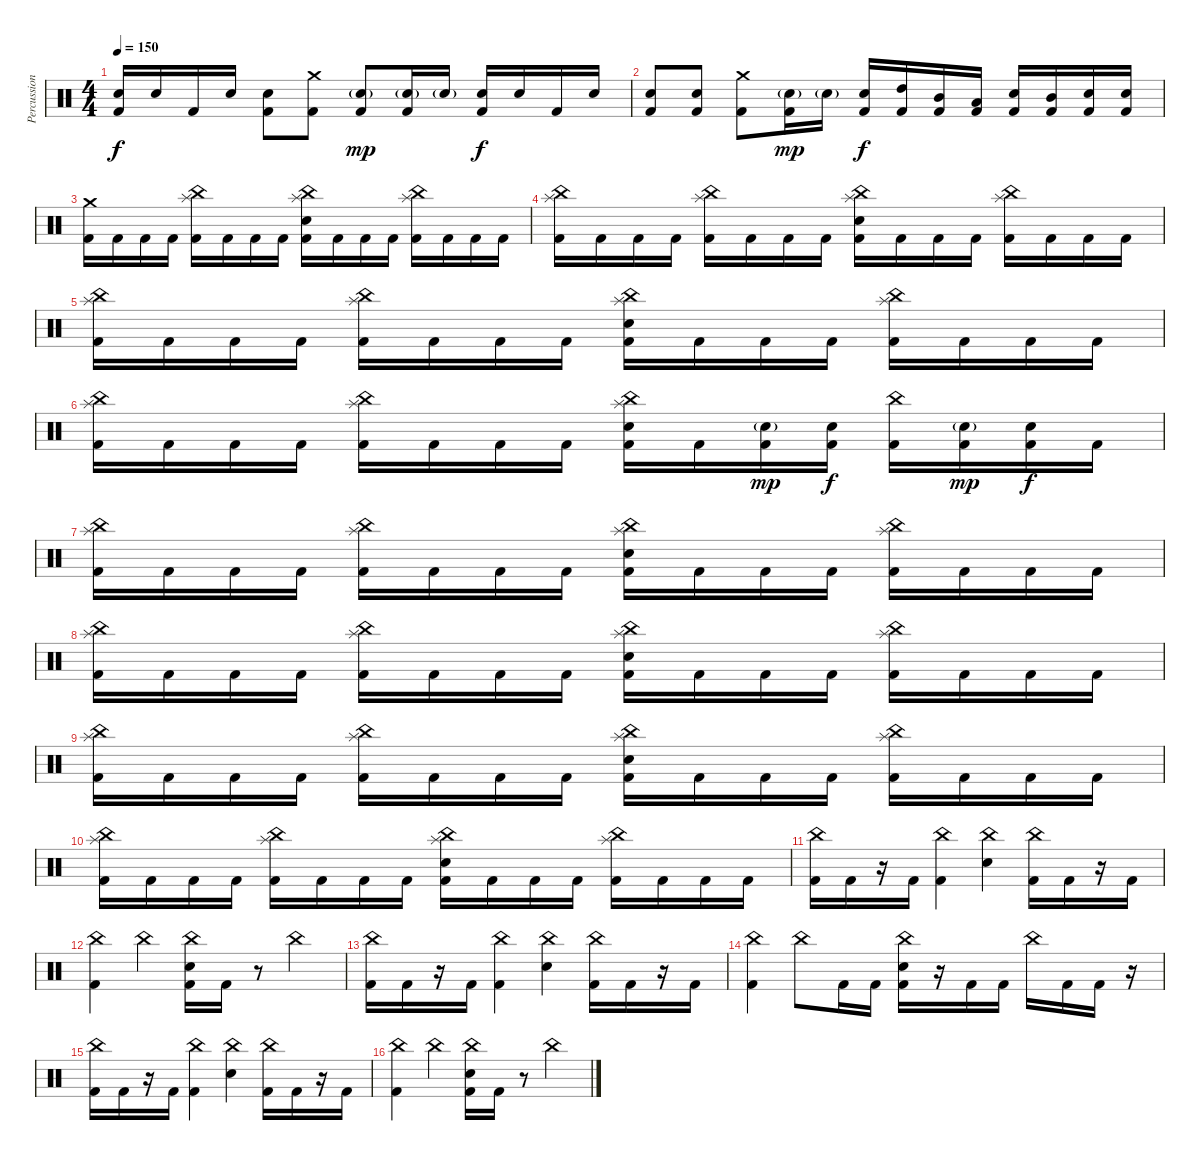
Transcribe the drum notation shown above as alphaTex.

\track ("Percussion" "Percussion") {instrument percussion}
\staff {score}
\articulation defaults
\ts (4 4)
\tempo 150
\clef neutral
\ks c
("Electric Snare (hit)" "Kick (hit) 2").16{dy f} "Electric Snare (hit)".16 "Kick (hit) 2".16 "Electric Snare (hit)".16 ("Electric Snare (hit)" "Kick (hit) 2").8 ("Crash medium (hit)" "Kick (hit) 2").8 ("Electric Snare (hit)"{g} "Kick (hit) 2").8{dy mp} ("Electric Snare (hit)"{g} "Kick (hit) 2").16 "Electric Snare (hit)"{g}.16 ("Electric Snare (hit)" "Kick (hit) 2").16{dy f} "Electric Snare (hit)".16 "Kick (hit) 2".16 "Electric Snare (hit)".16 |
("Electric Snare (hit)" "Kick (hit) 2").8 ("Electric Snare (hit)" "Kick (hit) 2").8 ("Crash medium (hit)" "Kick (hit) 2").8 ("Electric Snare (hit)"{g} "Kick (hit) 2").16{dy mp} "Electric Snare (hit)"{g}.16 ("Electric Snare (hit)" "Kick (hit) 2").16{dy f} ("High Tom (hit)" "Kick (hit) 2").16 ("Mid Tom (hit)" "Kick (hit) 2").16 ("Low Tom (hit)" "Kick (hit) 2").16 ("Electric Snare (hit)" "Kick (hit) 2").16 ("Mid Tom (hit)" "Kick (hit) 2").16 ("Electric Snare (hit)" "Kick (hit) 2").16 ("Electric Snare (hit)" "Kick (hit) 2").16 |
("Crash medium (hit)" "Kick (hit) 2").16 "Kick (hit) 2".16 "Kick (hit) 2".16 "Kick (hit) 2".16 ("China (hit)" "Splash (hit)" "Kick (hit) 2").16 "Kick (hit) 2".16 "Kick (hit) 2".16 "Kick (hit) 2".16 ("China (hit)" "Splash (hit)" "Electric Snare (hit)" "Kick (hit) 2").16 "Kick (hit) 2".16 "Kick (hit) 2".16 "Kick (hit) 2".16 ("China (hit)" "Splash (hit)" "Kick (hit) 2").16 "Kick (hit) 2".16 "Kick (hit) 2".16 "Kick (hit) 2".16 |
("China (hit)" "Splash (hit)" "Kick (hit) 2").16 "Kick (hit) 2".16 "Kick (hit) 2".16 "Kick (hit) 2".16 ("China (hit)" "Splash (hit)" "Kick (hit) 2").16 "Kick (hit) 2".16 "Kick (hit) 2".16 "Kick (hit) 2".16 ("China (hit)" "Splash (hit)" "Electric Snare (hit)" "Kick (hit) 2").16 "Kick (hit) 2".16 "Kick (hit) 2".16 "Kick (hit) 2".16 ("China (hit)" "Splash (hit)" "Kick (hit) 2").16 "Kick (hit) 2".16 "Kick (hit) 2".16 "Kick (hit) 2".16 |
("China (hit)" "Splash (hit)" "Kick (hit) 2").16 "Kick (hit) 2".16 "Kick (hit) 2".16 "Kick (hit) 2".16 ("China (hit)" "Splash (hit)" "Kick (hit) 2").16 "Kick (hit) 2".16 "Kick (hit) 2".16 "Kick (hit) 2".16 ("China (hit)" "Splash (hit)" "Electric Snare (hit)" "Kick (hit) 2").16 "Kick (hit) 2".16 "Kick (hit) 2".16 "Kick (hit) 2".16 ("China (hit)" "Splash (hit)" "Kick (hit) 2").16 "Kick (hit) 2".16 "Kick (hit) 2".16 "Kick (hit) 2".16 |
("China (hit)" "Splash (hit)" "Kick (hit) 2").16 "Kick (hit) 2".16 "Kick (hit) 2".16 "Kick (hit) 2".16 ("China (hit)" "Splash (hit)" "Kick (hit) 2").16 "Kick (hit) 2".16 "Kick (hit) 2".16 "Kick (hit) 2".16 ("China (hit)" "Splash (hit)" "Electric Snare (hit)" "Kick (hit) 2").16 "Kick (hit) 2".16 ("Electric Snare (hit)"{g} "Kick (hit) 2").16{dy mp} ("Electric Snare (hit)" "Kick (hit) 2").16{dy f} ("China (hit)" "Kick (hit) 2").16 ("Electric Snare (hit)"{g} "Kick (hit) 2").16{dy mp} ("Electric Snare (hit)" "Kick (hit) 2").16{dy f} "Kick (hit) 2".16 |
("China (hit)" "Splash (hit)" "Kick (hit) 2").16 "Kick (hit) 2".16 "Kick (hit) 2".16 "Kick (hit) 2".16 ("China (hit)" "Splash (hit)" "Kick (hit) 2").16 "Kick (hit) 2".16 "Kick (hit) 2".16 "Kick (hit) 2".16 ("China (hit)" "Splash (hit)" "Electric Snare (hit)" "Kick (hit) 2").16 "Kick (hit) 2".16 "Kick (hit) 2".16 "Kick (hit) 2".16 ("China (hit)" "Splash (hit)" "Kick (hit) 2").16 "Kick (hit) 2".16 "Kick (hit) 2".16 "Kick (hit) 2".16 |
("China (hit)" "Splash (hit)" "Kick (hit) 2").16 "Kick (hit) 2".16 "Kick (hit) 2".16 "Kick (hit) 2".16 ("China (hit)" "Splash (hit)" "Kick (hit) 2").16 "Kick (hit) 2".16 "Kick (hit) 2".16 "Kick (hit) 2".16 ("China (hit)" "Splash (hit)" "Electric Snare (hit)" "Kick (hit) 2").16 "Kick (hit) 2".16 "Kick (hit) 2".16 "Kick (hit) 2".16 ("China (hit)" "Splash (hit)" "Kick (hit) 2").16 "Kick (hit) 2".16 "Kick (hit) 2".16 "Kick (hit) 2".16 |
("China (hit)" "Splash (hit)" "Kick (hit) 2").16 "Kick (hit) 2".16 "Kick (hit) 2".16 "Kick (hit) 2".16 ("China (hit)" "Splash (hit)" "Kick (hit) 2").16 "Kick (hit) 2".16 "Kick (hit) 2".16 "Kick (hit) 2".16 ("China (hit)" "Splash (hit)" "Electric Snare (hit)" "Kick (hit) 2").16 "Kick (hit) 2".16 "Kick (hit) 2".16 "Kick (hit) 2".16 ("China (hit)" "Splash (hit)" "Kick (hit) 2").16 "Kick (hit) 2".16 "Kick (hit) 2".16 "Kick (hit) 2".16 |
("China (hit)" "Splash (hit)" "Kick (hit) 2").16 "Kick (hit) 2".16 "Kick (hit) 2".16 "Kick (hit) 2".16 ("China (hit)" "Splash (hit)" "Kick (hit) 2").16 "Kick (hit) 2".16 "Kick (hit) 2".16 "Kick (hit) 2".16 ("China (hit)" "Splash (hit)" "Electric Snare (hit)" "Kick (hit) 2").16 "Kick (hit) 2".16 "Kick (hit) 2".16 "Kick (hit) 2".16 ("China (hit)" "Splash (hit)" "Kick (hit) 2").16 "Kick (hit) 2".16 "Kick (hit) 2".16 "Kick (hit) 2".16 |
("China (hit)" "Kick (hit) 2").16 "Kick (hit) 2".16 r.16 "Kick (hit) 2".16 ("China (hit)" "Kick (hit) 2").4 ("China (hit)" "Electric Snare (hit)").4 ("China (hit)" "Kick (hit) 2").16 "Kick (hit) 2".16 r.16 "Kick (hit) 2".16 |
("China (hit)" "Kick (hit) 2").4 "China (hit)".4 ("China (hit)" "Electric Snare (hit)" "Kick (hit) 2").16 "Kick (hit) 2".16 r.8 "China (hit)".4 |
("China (hit)" "Kick (hit) 2").16 "Kick (hit) 2".16 r.16 "Kick (hit) 2".16 ("China (hit)" "Kick (hit) 2").4 ("China (hit)" "Electric Snare (hit)").4 ("China (hit)" "Kick (hit) 2").16 "Kick (hit) 2".16 r.16 "Kick (hit) 2".16 |
("China (hit)" "Kick (hit) 2").4 "China (hit)".8 "Kick (hit) 2".16 "Kick (hit) 2".16 ("China (hit)" "Electric Snare (hit)" "Kick (hit) 2").16 r.16 "Kick (hit) 2".16 "Kick (hit) 2".16 "China (hit)".16 "Kick (hit) 2".16 "Kick (hit) 2".16 r.16 |
("China (hit)" "Kick (hit) 2").16 "Kick (hit) 2".16 r.16 "Kick (hit) 2".16 ("China (hit)" "Kick (hit) 2").4 ("China (hit)" "Electric Snare (hit)").4 ("China (hit)" "Kick (hit) 2").16 "Kick (hit) 2".16 r.16 "Kick (hit) 2".16 |
("China (hit)" "Kick (hit) 2").4 "China (hit)".4 ("China (hit)" "Electric Snare (hit)" "Kick (hit) 2").16 "Kick (hit) 2".16 r.8 "China (hit)".4
